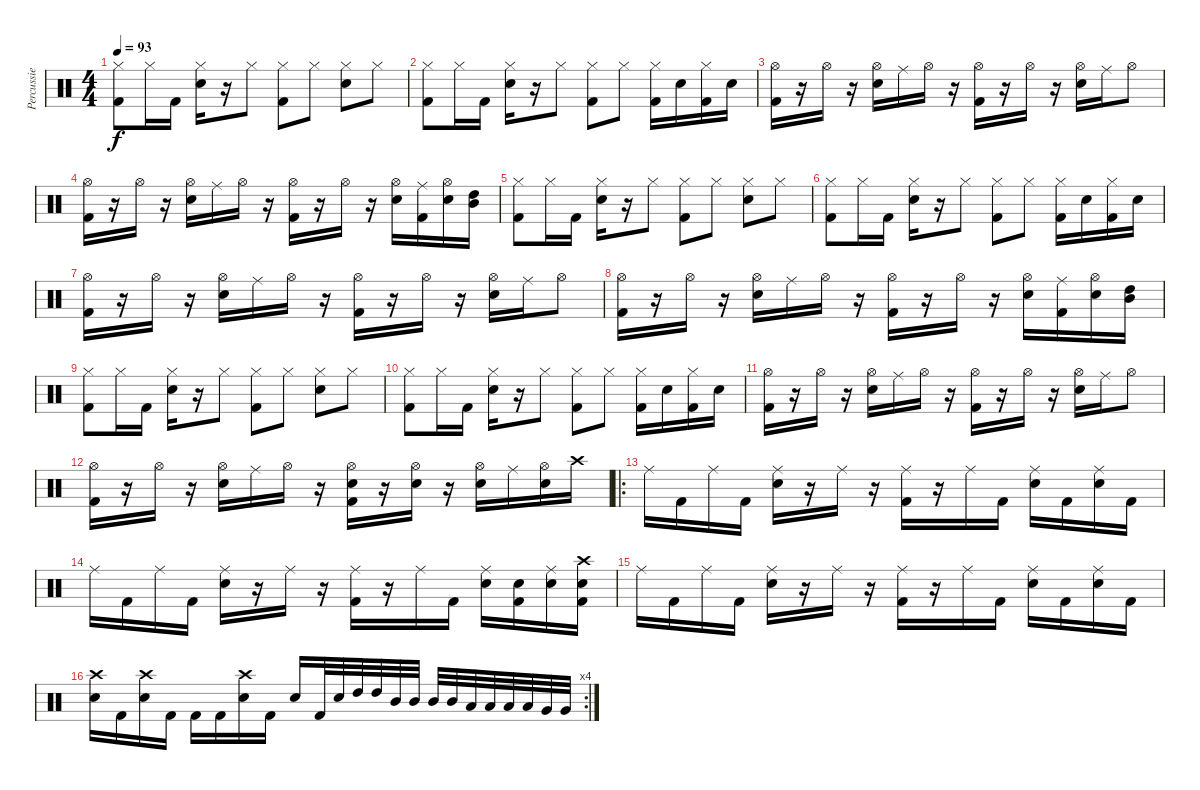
\track ("Percussie" "Percussie") {instrument percussion}
\staff {score}
\articulation defaults
\ts (4 4)
\tempo 93
\clef neutral
\ks c
("Hi-Hat (closed)" "Kick (hit) 2").8{dy f} "Hi-Hat (closed)".16 "Kick (hit) 2".16 ("Hi-Hat (closed)" "Electric Snare (hit)").16 r.16 "Hi-Hat (closed)".8 ("Hi-Hat (closed)" "Kick (hit) 2").8 "Hi-Hat (closed)".8 ("Hi-Hat (closed)" "Electric Snare (hit)").8 "Hi-Hat (closed)".8 |
("Hi-Hat (closed)" "Kick (hit) 2").8 "Hi-Hat (closed)".16 "Kick (hit) 2".16 ("Hi-Hat (closed)" "Electric Snare (hit)").16 r.16 "Hi-Hat (closed)".8 ("Hi-Hat (closed)" "Kick (hit) 2").8 "Hi-Hat (closed)".8 ("Hi-Hat (closed)" "Kick (hit) 2").16 "Electric Snare (hit)".16 ("Hi-Hat (closed)" "Kick (hit) 2").16 "Electric Snare (hit)".16 |
("Hi-Hat (open)" "Kick (hit) 2").16 r.16 "Hi-Hat (open)".16 r.16 ("Hi-Hat (open)" "Electric Snare (hit)").16 "Ride (middle)".16 "Hi-Hat (open)".16 r.16 ("Hi-Hat (open)" "Kick (hit) 2").16 r.16 "Hi-Hat (open)".16 r.16 ("Hi-Hat (open)" "Electric Snare (hit)").16 "Ride (middle)".16 "Hi-Hat (open)".8 |
("Hi-Hat (open)" "Kick (hit) 2").16 r.16 "Hi-Hat (open)".16 r.16 ("Hi-Hat (open)" "Electric Snare (hit)").16 "Ride (middle)".16 "Hi-Hat (open)".16 r.16 ("Hi-Hat (open)" "Kick (hit) 2").16 r.16 "Hi-Hat (open)".16 r.16 ("Hi-Hat (open)" "Electric Snare (hit)").16 ("Ride (middle)" "Kick (hit) 2").16 ("Hi-Hat (open)" "Electric Snare (hit)").16 ("High Tom (hit)" "Mid Tom (hit)").16 |
("Hi-Hat (closed)" "Kick (hit) 2").8 "Hi-Hat (closed)".16 "Kick (hit) 2".16 ("Hi-Hat (closed)" "Electric Snare (hit)").16 r.16 "Hi-Hat (closed)".8 ("Hi-Hat (closed)" "Kick (hit) 2").8 "Hi-Hat (closed)".8 ("Hi-Hat (closed)" "Electric Snare (hit)").8 "Hi-Hat (closed)".8 |
("Hi-Hat (closed)" "Kick (hit) 2").8 "Hi-Hat (closed)".16 "Kick (hit) 2".16 ("Hi-Hat (closed)" "Electric Snare (hit)").16 r.16 "Hi-Hat (closed)".8 ("Hi-Hat (closed)" "Kick (hit) 2").8 "Hi-Hat (closed)".8 ("Hi-Hat (closed)" "Kick (hit) 2").16 "Electric Snare (hit)".16 ("Hi-Hat (closed)" "Kick (hit) 2").16 "Electric Snare (hit)".16 |
("Hi-Hat (open)" "Kick (hit) 2").16 r.16 "Hi-Hat (open)".16 r.16 ("Hi-Hat (open)" "Electric Snare (hit)").16 "Ride (middle)".16 "Hi-Hat (open)".16 r.16 ("Hi-Hat (open)" "Kick (hit) 2").16 r.16 "Hi-Hat (open)".16 r.16 ("Hi-Hat (open)" "Electric Snare (hit)").16 "Ride (middle)".16 "Hi-Hat (open)".8 |
("Hi-Hat (open)" "Kick (hit) 2").16 r.16 "Hi-Hat (open)".16 r.16 ("Hi-Hat (open)" "Electric Snare (hit)").16 "Ride (middle)".16 "Hi-Hat (open)".16 r.16 ("Hi-Hat (open)" "Kick (hit) 2").16 r.16 "Hi-Hat (open)".16 r.16 ("Hi-Hat (open)" "Electric Snare (hit)").16 ("Ride (middle)" "Kick (hit) 2").16 ("Hi-Hat (open)" "Electric Snare (hit)").16 ("High Tom (hit)" "Mid Tom (hit)").16 |
("Hi-Hat (closed)" "Kick (hit) 2").8 "Hi-Hat (closed)".16 "Kick (hit) 2".16 ("Hi-Hat (closed)" "Electric Snare (hit)").16 r.16 "Hi-Hat (closed)".8 ("Hi-Hat (closed)" "Kick (hit) 2").8 "Hi-Hat (closed)".8 ("Hi-Hat (closed)" "Electric Snare (hit)").8 "Hi-Hat (closed)".8 |
("Hi-Hat (closed)" "Kick (hit) 2").8 "Hi-Hat (closed)".16 "Kick (hit) 2".16 ("Hi-Hat (closed)" "Electric Snare (hit)").16 r.16 "Hi-Hat (closed)".8 ("Hi-Hat (closed)" "Kick (hit) 2").8 "Hi-Hat (closed)".8 ("Hi-Hat (closed)" "Kick (hit) 2").16 "Electric Snare (hit)".16 ("Hi-Hat (closed)" "Kick (hit) 2").16 "Electric Snare (hit)".16 |
("Hi-Hat (open)" "Kick (hit) 2").16 r.16 "Hi-Hat (open)".16 r.16 ("Hi-Hat (open)" "Electric Snare (hit)").16 "Ride (middle)".16 "Hi-Hat (open)".16 r.16 ("Hi-Hat (open)" "Kick (hit) 2").16 r.16 "Hi-Hat (open)".16 r.16 ("Hi-Hat (open)" "Electric Snare (hit)").16 "Ride (middle)".16 "Hi-Hat (open)".8 |
("Hi-Hat (open)" "Kick (hit) 2").16 r.16 "Hi-Hat (open)".16 r.16 ("Hi-Hat (open)" "Electric Snare (hit)").16 "Ride (middle)".16 "Hi-Hat (open)".16 r.16 ("Hi-Hat (open)" "Electric Snare (hit)" "Kick (hit) 2").16 r.16 ("Hi-Hat (open)" "Electric Snare (hit)").16 r.16 ("Hi-Hat (open)" "Electric Snare (hit)").16 "Ride (middle)".16 ("Hi-Hat (open)" "Electric Snare (hit)").16 "Crash high (hit)".16 |
\ro "Ride (middle)".16 "Kick (hit) 2".16 "Ride (middle)".16 "Kick (hit) 2".16
("Ride (middle)" "Electric Snare (hit)").16 r.16 "Ride (middle)".16 r.16 ("Ride (middle)" "Kick (hit) 2").16 r.16 "Ride (middle)".16 "Kick (hit) 2".16 ("Ride (middle)" "Electric Snare (hit)").16 "Kick (hit) 2".16 ("Ride (middle)" "Electric Snare (hit)").16 "Kick (hit) 2".16 |
"Ride (middle)".16 "Kick (hit) 2".16 "Ride (middle)".16 "Kick (hit) 2".16 ("Ride (middle)" "Electric Snare (hit)").16 r.16 "Ride (middle)".16 r.16 ("Ride (middle)" "Kick (hit) 2").16 r.16 "Ride (middle)".16 "Kick (hit) 2".16 ("Ride (middle)" "Electric Snare (hit)").16 ("Electric Snare (hit)" "Kick (hit) 2").16 ("Ride (middle)" "Electric Snare (hit)").16 ("Crash high (hit)" "Electric Snare (hit)" "Kick (hit) 2").16 |
"Ride (middle)".16 "Kick (hit) 2".16 "Ride (middle)".16 "Kick (hit) 2".16 ("Ride (middle)" "Electric Snare (hit)").16 r.16 "Ride (middle)".16 r.16 ("Ride (middle)" "Kick (hit) 2").16 r.16 "Ride (middle)".16 "Kick (hit) 2".16 ("Ride (middle)" "Electric Snare (hit)").16 "Kick (hit) 2".16 ("Ride (middle)" "Electric Snare (hit)").16 "Kick (hit) 2".16 |
\rc 4
("Crash high (hit)" "Electric Snare (hit)").16 "Kick (hit) 2".16 ("Crash high (hit)" "Electric Snare (hit)").16 "Kick (hit) 2".16 "Kick (hit) 2".16 "Kick (hit) 2".16 ("Crash high (hit)" "Electric Snare (hit)").16 "Kick (hit) 2".16 "Electric Snare (hit)".16 "Kick (hit) 2".32 "Electric Snare (hit)".32 "High Tom (hit)".32 "High Tom (hit)".32 "Mid Tom (hit)".32 "Mid Tom (hit)".32 "Mid Tom (hit)".32 "Mid Tom (hit)".32 "Low Tom (hit)".32 "Low Tom (hit)".32 "Low Tom (hit)".32 "Low Tom (hit)".32 "Very Low Tom (hit)".32 "Very Low Tom (hit)".32
